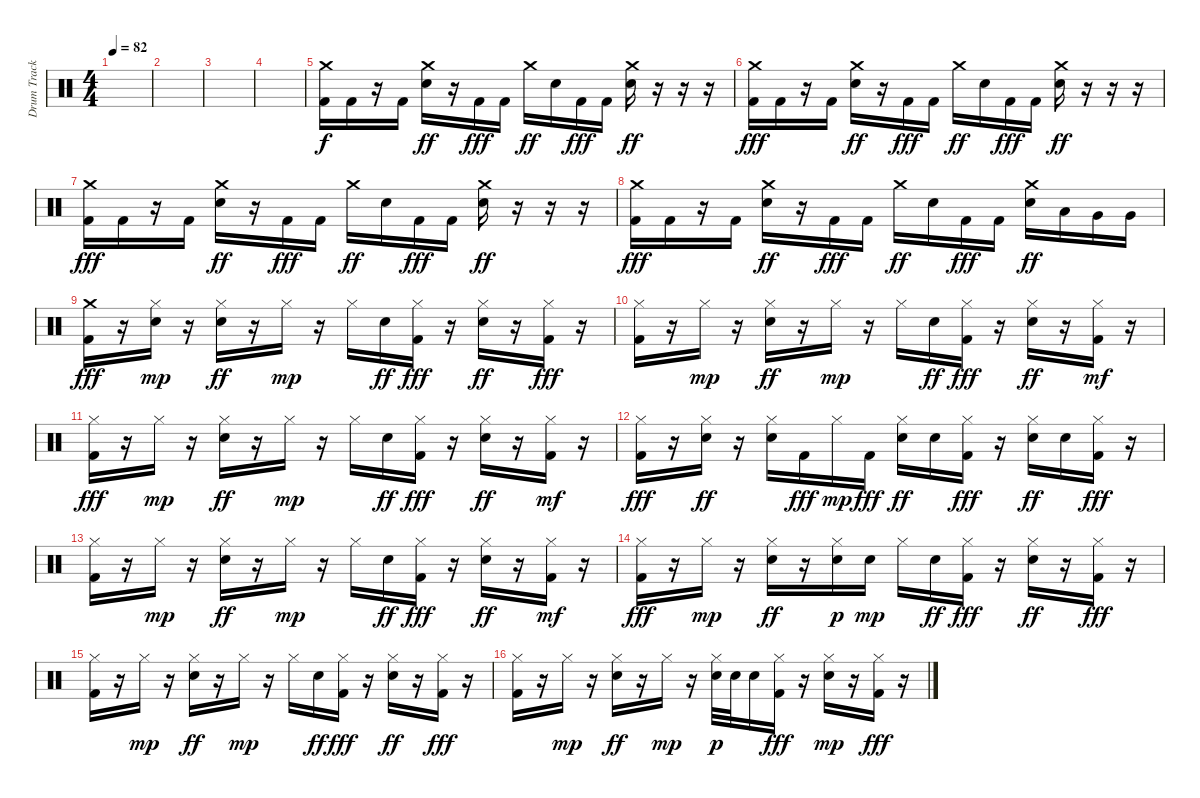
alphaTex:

\track ("Drum Track" "Drum Track") {instrument percussion}
\staff {score}
\articulation defaults
\ts (4 4)
\tempo 82
\clef neutral
\ks c
|
|
|
|
("Crash medium (hit)" "Kick (hit) 2").16 "Kick (hit) 2".16 r.16 "Kick (hit) 2".16 ("Crash medium (hit)" "Electric Snare (hit)").16{dy ff} r.16 "Kick (hit) 2".16{dy fff} "Kick (hit) 2".16 "Crash medium (hit)".16{dy ff} "Electric Snare (hit)".16 "Kick (hit) 2".16{dy fff} "Kick (hit) 2".16 ("Crash medium (hit)" "Electric Snare (hit)").16{dy ff} r.16 r.16 r.16 |
("Crash medium (hit)" "Kick (hit) 2").16{dy fff} "Kick (hit) 2".16 r.16 "Kick (hit) 2".16 ("Crash medium (hit)" "Electric Snare (hit)").16{dy ff} r.16 "Kick (hit) 2".16{dy fff} "Kick (hit) 2".16 "Crash medium (hit)".16{dy ff} "Electric Snare (hit)".16 "Kick (hit) 2".16{dy fff} "Kick (hit) 2".16 ("Crash medium (hit)" "Electric Snare (hit)").16{dy ff} r.16 r.16 r.16 |
("Crash medium (hit)" "Kick (hit) 2").16{dy fff} "Kick (hit) 2".16 r.16 "Kick (hit) 2".16 ("Crash medium (hit)" "Electric Snare (hit)").16{dy ff} r.16 "Kick (hit) 2".16{dy fff} "Kick (hit) 2".16 "Crash medium (hit)".16{dy ff} "Electric Snare (hit)".16 "Kick (hit) 2".16{dy fff} "Kick (hit) 2".16 ("Crash medium (hit)" "Electric Snare (hit)").16{dy ff} r.16 r.16 r.16 |
("Crash medium (hit)" "Kick (hit) 2").16{dy fff} "Kick (hit) 2".16 r.16 "Kick (hit) 2".16 ("Crash medium (hit)" "Electric Snare (hit)").16{dy ff} r.16 "Kick (hit) 2".16{dy fff} "Kick (hit) 2".16 "Crash medium (hit)".16{dy ff} "Electric Snare (hit)".16 "Kick (hit) 2".16{dy fff} "Kick (hit) 2".16 ("Crash medium (hit)" "Electric Snare (hit)").16{dy ff} "Low Tom (hit)".16 "Very Low Tom (hit)".16 "Very Low Tom (hit)".16 |
("Crash medium (hit)" "Kick (hit) 2").16{dy fff} r.16 ("Hi-Hat (closed)" "Snare (hit)").16{dy mp} r.16 ("Hi-Hat (closed)" "Electric Snare (hit)").16{dy ff} r.16 "Hi-Hat (closed)".16{dy mp} r.16 "Hi-Hat (closed)".16 "Electric Snare (hit)".16{dy ff} ("Hi-Hat (closed)" "Kick (hit) 2").16{dy fff} r.16 ("Hi-Hat (closed)" "Electric Snare (hit)").16{dy ff} r.16 ("Hi-Hat (closed)" "Kick (hit) 2").16{dy fff} r.16 |
("Hi-Hat (closed)" "Kick (hit) 2").16 r.16 "Hi-Hat (closed)".16{dy mp} r.16 ("Hi-Hat (closed)" "Electric Snare (hit)").16{dy ff} r.16 "Hi-Hat (closed)".16{dy mp} r.16 "Hi-Hat (closed)".16 "Electric Snare (hit)".16{dy ff} ("Hi-Hat (closed)" "Kick (hit) 2").16{dy fff} r.16 ("Hi-Hat (closed)" "Electric Snare (hit)").16{dy ff} r.16 ("Hi-Hat (closed)" "Kick (hit) 2").16{dy mf} r.16 |
("Hi-Hat (closed)" "Kick (hit) 2").16{dy fff} r.16 "Hi-Hat (closed)".16{dy mp} r.16 ("Hi-Hat (closed)" "Electric Snare (hit)").16{dy ff} r.16 "Hi-Hat (closed)".16{dy mp} r.16 "Hi-Hat (closed)".16 "Electric Snare (hit)".16{dy ff} ("Hi-Hat (closed)" "Kick (hit) 2").16{dy fff} r.16 ("Hi-Hat (closed)" "Electric Snare (hit)").16{dy ff} r.16 ("Hi-Hat (closed)" "Kick (hit) 2").16{dy mf} r.16 |
("Hi-Hat (closed)" "Kick (hit) 2").16{dy fff} r.16 ("Hi-Hat (closed)" "Electric Snare (hit)").16{dy ff} r.16 ("Hi-Hat (closed)" "Electric Snare (hit)").16 "Kick (hit) 2".16{dy fff} "Hi-Hat (closed)".16{dy mp} "Kick (hit) 2".16{dy fff} ("Hi-Hat (closed)" "Electric Snare (hit)").16{dy ff} "Electric Snare (hit)".16 ("Hi-Hat (closed)" "Kick (hit) 2").16{dy fff} r.16 ("Hi-Hat (closed)" "Electric Snare (hit)").16{dy ff} "Electric Snare (hit)".16 ("Hi-Hat (closed)" "Kick (hit) 2").16{dy fff} r.16 |
("Hi-Hat (closed)" "Kick (hit) 2").16 r.16 "Hi-Hat (closed)".16{dy mp} r.16 ("Hi-Hat (closed)" "Electric Snare (hit)").16{dy ff} r.16 "Hi-Hat (closed)".16{dy mp} r.16 "Hi-Hat (closed)".16 "Electric Snare (hit)".16{dy ff} ("Hi-Hat (closed)" "Kick (hit) 2").16{dy fff} r.16 ("Hi-Hat (closed)" "Electric Snare (hit)").16{dy ff} r.16 ("Hi-Hat (closed)" "Kick (hit) 2").16{dy mf} r.16 |
("Hi-Hat (closed)" "Kick (hit) 2").16{dy fff} r.16 "Hi-Hat (closed)".16{dy mp} r.16 ("Hi-Hat (closed)" "Electric Snare (hit)").16{dy ff} r.16 ("Hi-Hat (closed)" "Electric Snare (hit)").16{dy p} "Electric Snare (hit)".16{dy mp} "Hi-Hat (closed)".16 "Electric Snare (hit)".16{dy ff} ("Hi-Hat (closed)" "Kick (hit) 2").16{dy fff} r.16 ("Hi-Hat (closed)" "Electric Snare (hit)").16{dy ff} r.16 ("Hi-Hat (closed)" "Kick (hit) 2").16{dy fff} r.16 |
("Hi-Hat (closed)" "Kick (hit) 2").16 r.16 "Hi-Hat (closed)".16{dy mp} r.16 ("Hi-Hat (closed)" "Electric Snare (hit)").16{dy ff} r.16 "Hi-Hat (closed)".16{dy mp} r.16 "Hi-Hat (closed)".16 "Electric Snare (hit)".16{dy ff} ("Hi-Hat (closed)" "Kick (hit) 2").16{dy fff} r.16 ("Hi-Hat (closed)" "Electric Snare (hit)").16{dy ff} r.16 ("Hi-Hat (closed)" "Kick (hit) 2").16{dy fff} r.16 |
("Hi-Hat (closed)" "Kick (hit) 2").16 r.16 "Hi-Hat (closed)".16{dy mp} r.16 ("Hi-Hat (closed)" "Electric Snare (hit)").16{dy ff} r.16 "Hi-Hat (closed)".16{dy mp} r.16 ("Hi-Hat (closed)" "Electric Snare (hit)").32{dy p} "Electric Snare (hit)".32 "Electric Snare (hit)".16 ("Hi-Hat (closed)" "Kick (hit) 2").16{dy fff} r.16 ("Hi-Hat (closed)" "Electric Snare (hit)").16{dy mp} r.16 ("Hi-Hat (closed)" "Kick (hit) 2").16{dy fff} r.16
